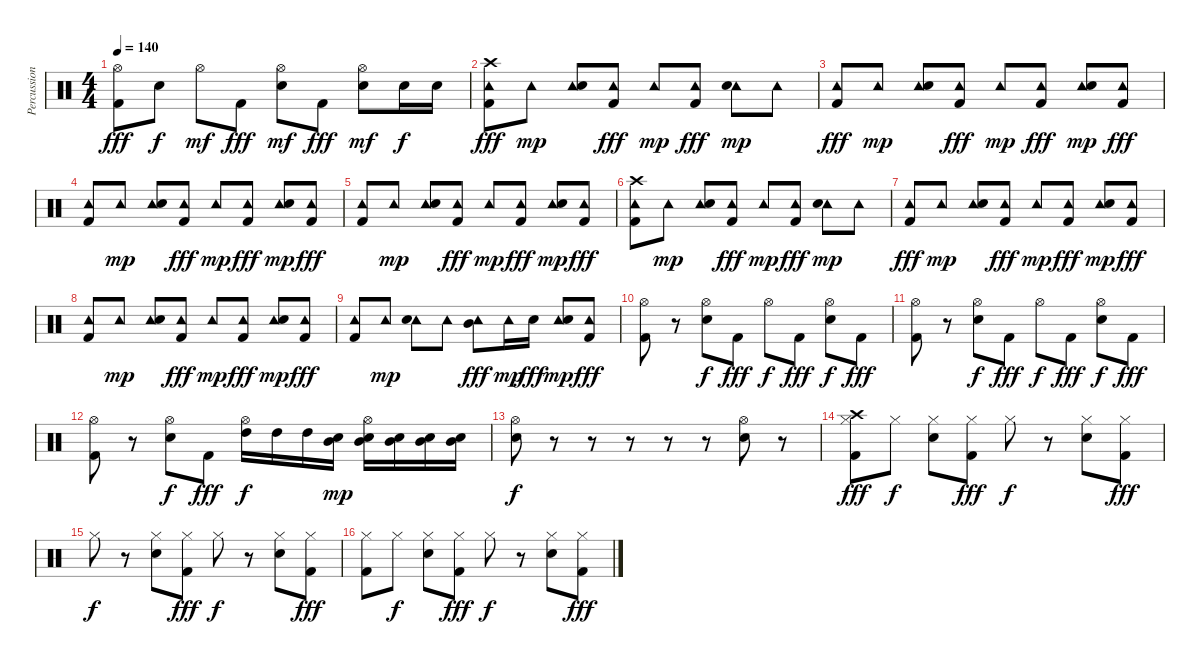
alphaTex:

\track ("Percussion" "Percussion") {instrument percussion}
\staff {score}
\articulation defaults
\ts (4 4)
\tempo 140
\clef neutral
\ks c
("Hi-Hat (open)" "Kick (hit) 2").8{dy fff} "Electric Snare (hit)".8{dy f} "Hi-Hat (open)".8{dy mf} "Kick (hit) 2".8{dy fff} ("Hi-Hat (open)" "Electric Snare (hit)").8{dy mf} "Kick (hit) 2".8{dy fff} ("Hi-Hat (open)" "Electric Snare (hit)").8{dy mf} "Electric Snare (hit)".16{dy f} "Electric Snare (hit)".16 |
("Tambourine (hit)" "Kick (hit) 2" "Crash high (hit)").8{dy fff} "Tambourine (hit)".8{dy mp} ("Tambourine (hit)" "Electric Snare (hit)").8 ("Tambourine (hit)" "Kick (hit) 2").8{dy fff} "Tambourine (hit)".8{dy mp} ("Tambourine (hit)" "Kick (hit) 2").8{dy fff} ("Tambourine (hit)" "Electric Snare (hit)").8{dy mp} "Tambourine (hit)".8 |
("Tambourine (hit)" "Kick (hit) 2").8{dy fff} "Tambourine (hit)".8{dy mp} ("Tambourine (hit)" "Electric Snare (hit)").8 ("Tambourine (hit)" "Kick (hit) 2").8{dy fff} "Tambourine (hit)".8{dy mp} ("Tambourine (hit)" "Kick (hit) 2").8{dy fff} ("Tambourine (hit)" "Electric Snare (hit)").8{dy mp} ("Tambourine (hit)" "Kick (hit) 2").8{dy fff} |
("Tambourine (hit)" "Kick (hit) 2").8 "Tambourine (hit)".8{dy mp} ("Tambourine (hit)" "Electric Snare (hit)").8 ("Tambourine (hit)" "Kick (hit) 2").8{dy fff} "Tambourine (hit)".8{dy mp} ("Tambourine (hit)" "Kick (hit) 2").8{dy fff} ("Tambourine (hit)" "Electric Snare (hit)").8{dy mp} ("Tambourine (hit)" "Kick (hit) 2").8{dy fff} |
("Tambourine (hit)" "Kick (hit) 2").8 "Tambourine (hit)".8{dy mp} ("Tambourine (hit)" "Electric Snare (hit)").8 ("Tambourine (hit)" "Kick (hit) 2").8{dy fff} "Tambourine (hit)".8{dy mp} ("Tambourine (hit)" "Kick (hit) 2").8{dy fff} ("Tambourine (hit)" "Electric Snare (hit)").8{dy mp} ("Tambourine (hit)" "Kick (hit) 2").8{dy fff} |
("Tambourine (hit)" "Kick (hit) 2" "Crash high (hit)").8 "Tambourine (hit)".8{dy mp} ("Tambourine (hit)" "Electric Snare (hit)").8 ("Tambourine (hit)" "Kick (hit) 2").8{dy fff} "Tambourine (hit)".8{dy mp} ("Tambourine (hit)" "Kick (hit) 2").8{dy fff} ("Tambourine (hit)" "Electric Snare (hit)").8{dy mp} "Tambourine (hit)".8 |
("Tambourine (hit)" "Kick (hit) 2").8{dy fff} "Tambourine (hit)".8{dy mp} ("Tambourine (hit)" "Electric Snare (hit)").8 ("Tambourine (hit)" "Kick (hit) 2").8{dy fff} "Tambourine (hit)".8{dy mp} ("Tambourine (hit)" "Kick (hit) 2").8{dy fff} ("Tambourine (hit)" "Electric Snare (hit)").8{dy mp} ("Tambourine (hit)" "Kick (hit) 2").8{dy fff} |
("Tambourine (hit)" "Kick (hit) 2").8 "Tambourine (hit)".8{dy mp} ("Tambourine (hit)" "Electric Snare (hit)").8 ("Tambourine (hit)" "Kick (hit) 2").8{dy fff} "Tambourine (hit)".8{dy mp} ("Tambourine (hit)" "Kick (hit) 2").8{dy fff} ("Tambourine (hit)" "Electric Snare (hit)").8{dy mp} ("Tambourine (hit)" "Kick (hit) 2").8{dy fff} |
("Tambourine (hit)" "Kick (hit) 2").8 "Tambourine (hit)".8{dy mp} ("Tambourine (hit)" "Electric Snare (hit)").8 "Tambourine (hit)".8 ("Tambourine (hit)" "Mid Tom (hit)").8{dy fff} "Tambourine (hit)".16{dy mp} "Electric Snare (hit)".16{dy fff} ("Tambourine (hit)" "Electric Snare (hit)").8{dy mp} ("Tambourine (hit)" "Kick (hit) 2").8{dy fff} |
("Hi-Hat (open)" "Kick (hit) 2").8 r.8 ("Hi-Hat (open)" "Electric Snare (hit)").8{dy f} "Kick (hit) 2".8{dy fff} "Hi-Hat (open)".8{dy f} "Kick (hit) 2".8{dy fff} ("Hi-Hat (open)" "Electric Snare (hit)").8{dy f} "Kick (hit) 2".8{dy fff} |
("Hi-Hat (open)" "Kick (hit) 2").8 r.8 ("Hi-Hat (open)" "Electric Snare (hit)").8{dy f} "Kick (hit) 2".8{dy fff} "Hi-Hat (open)".8{dy f} "Kick (hit) 2".8{dy fff} ("Hi-Hat (open)" "Electric Snare (hit)").8{dy f} "Kick (hit) 2".8{dy fff} |
("Hi-Hat (open)" "Kick (hit) 2").8 r.8 ("Hi-Hat (open)" "Electric Snare (hit)").8{dy f} "Kick (hit) 2".8{dy fff} ("Hi-Hat (open)" "High Tom (hit)").16{dy f} "High Tom (hit)".16 "High Tom (hit)".16 ("Mid Tom (hit)" "Electric Snare (hit)").16{dy mp} ("Hi-Hat (open)" "Mid Tom (hit)" "Electric Snare (hit)").16 ("Mid Tom (hit)" "Electric Snare (hit)").16 ("Mid Tom (hit)" "Electric Snare (hit)").16 ("Mid Tom (hit)" "Electric Snare (hit)").16 |
("Hi-Hat (open)" "Electric Snare (hit)").8{dy f} r.8 r.8 r.8 r.8 r.8 ("Hi-Hat (open)" "Electric Snare (hit)").8 r.8 |
("Hi-Hat (closed)" "Kick (hit) 2" "Crash high (hit)").8{dy fff} "Hi-Hat (closed)".8{dy f} ("Hi-Hat (closed)" "Electric Snare (hit)").8 ("Hi-Hat (closed)" "Kick (hit) 2").8{dy fff} "Hi-Hat (closed)".8{dy f} r.8 ("Hi-Hat (closed)" "Electric Snare (hit)").8 ("Hi-Hat (closed)" "Kick (hit) 2").8{dy fff} |
"Hi-Hat (closed)".8{dy f} r.8 ("Hi-Hat (closed)" "Electric Snare (hit)").8 ("Hi-Hat (closed)" "Kick (hit) 2").8{dy fff} "Hi-Hat (closed)".8{dy f} r.8 ("Hi-Hat (closed)" "Electric Snare (hit)").8 ("Hi-Hat (closed)" "Kick (hit) 2").8{dy fff} |
("Hi-Hat (closed)" "Kick (hit) 2").8 "Hi-Hat (closed)".8{dy f} ("Hi-Hat (closed)" "Electric Snare (hit)").8 ("Hi-Hat (closed)" "Kick (hit) 2").8{dy fff} "Hi-Hat (closed)".8{dy f} r.8 ("Hi-Hat (closed)" "Electric Snare (hit)").8 ("Hi-Hat (closed)" "Kick (hit) 2").8{dy fff}
